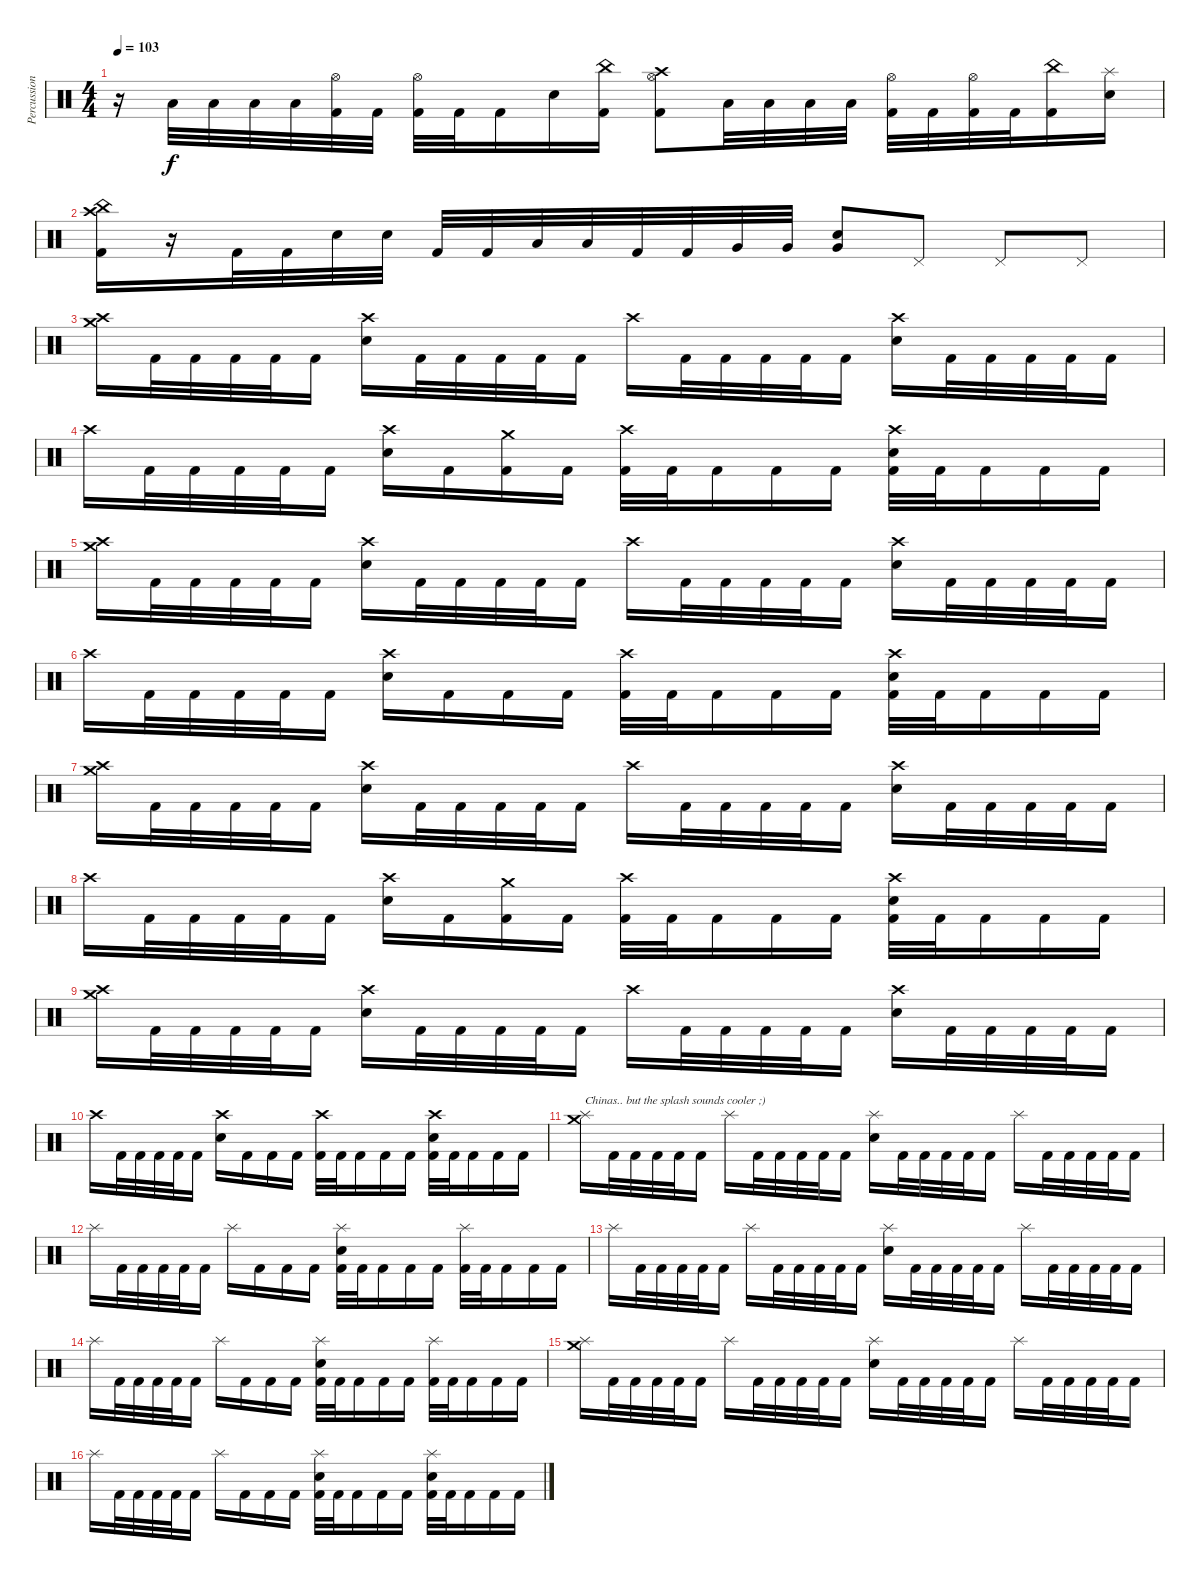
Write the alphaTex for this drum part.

\track ("Percussion" "Percussion") {instrument percussion}
\staff {score}
\articulation defaults
\ts (4 4)
\tempo 103
\clef neutral
\ks c
r.16{dy f} "Low Tom (hit)".32 "Low Tom (hit)".32 "Low Tom (hit)".32 "Low Tom (hit)".32 ("Hi-Hat (open)" "Kick (hit) 2").32 "Kick (hit) 2".32 ("Hi-Hat (open)" "Kick (hit) 2").32 "Kick (hit) 2".32 "Kick (hit) 2".16 "Snare (hit) 2".16 ("China (hit)" "Kick (hit) 2").16 ("Crash high (hit)" "Hi-Hat (open)" "Kick (hit) 2").8 "Low Tom (hit)".32 "Low Tom (hit)".32 "Low Tom (hit)".32 "Low Tom (hit)".32 ("Hi-Hat (open)" "Kick (hit) 2").32 "Kick (hit) 2".32 ("Hi-Hat (open)" "Kick (hit) 2").32 "Kick (hit) 2".32 ("China (hit)" "Kick (hit) 2").16 ("Splash (hit)" "Snare (hit) 2").16 |
("China (hit)" "Crash high (hit)" "Kick (hit) 2").16 r.16 "Kick (hit) 2".32 "Kick (hit) 2".32 "Snare (hit) 2".32 "Snare (hit) 2".32 "Kick (hit) 2".32 "Kick (hit) 2".32 "Low Tom (hit)".32 "Low Tom (hit)".32 "Kick (hit) 2".32 "Kick (hit) 2".32 "Very Low Tom (hit)".32 "Very Low Tom (hit)".32 ("Snare (hit) 2" "Very Low Tom (hit)").8 "Pedal Hi-Hat (hit)".8 "Pedal Hi-Hat (hit)".8 "Pedal Hi-Hat (hit)".8 |
("Crash high (hit)" "Crash medium (hit)").16 "Kick (hit) 2".32 "Kick (hit) 2".32 "Kick (hit) 2".32 "Kick (hit) 2".32 "Kick (hit) 2".16 ("Crash high (hit)" "Snare (hit) 2").16 "Kick (hit) 2".32 "Kick (hit) 2".32 "Kick (hit) 2".32 "Kick (hit) 2".32 "Kick (hit) 2".16 "Crash high (hit)".16 "Kick (hit) 2".32 "Kick (hit) 2".32 "Kick (hit) 2".32 "Kick (hit) 2".32 "Kick (hit) 2".16 ("Crash high (hit)" "Snare (hit) 2").16 "Kick (hit) 2".32 "Kick (hit) 2".32 "Kick (hit) 2".32 "Kick (hit) 2".32 "Kick (hit) 2".16 |
"Crash high (hit)".16 "Kick (hit) 2".32 "Kick (hit) 2".32 "Kick (hit) 2".32 "Kick (hit) 2".32 "Kick (hit) 2".16 ("Crash high (hit)" "Snare (hit) 2").16 "Kick (hit) 2".16 ("Crash medium (hit)" "Kick (hit) 2").16 "Kick (hit) 2".16 ("Crash high (hit)" "Kick (hit) 2").32 "Kick (hit) 2".32 "Kick (hit) 2".16 "Kick (hit) 2".16 "Kick (hit) 2".16 ("Crash high (hit)" "Snare (hit) 2" "Kick (hit) 2").32 "Kick (hit) 2".32 "Kick (hit) 2".16 "Kick (hit) 2".16 "Kick (hit) 2".16 |
("Crash high (hit)" "Crash medium (hit)").16 "Kick (hit) 2".32 "Kick (hit) 2".32 "Kick (hit) 2".32 "Kick (hit) 2".32 "Kick (hit) 2".16 ("Crash high (hit)" "Snare (hit) 2").16 "Kick (hit) 2".32 "Kick (hit) 2".32 "Kick (hit) 2".32 "Kick (hit) 2".32 "Kick (hit) 2".16 "Crash high (hit)".16 "Kick (hit) 2".32 "Kick (hit) 2".32 "Kick (hit) 2".32 "Kick (hit) 2".32 "Kick (hit) 2".16 ("Crash high (hit)" "Snare (hit) 2").16 "Kick (hit) 2".32 "Kick (hit) 2".32 "Kick (hit) 2".32 "Kick (hit) 2".32 "Kick (hit) 2".16 |
"Crash high (hit)".16 "Kick (hit) 2".32 "Kick (hit) 2".32 "Kick (hit) 2".32 "Kick (hit) 2".32 "Kick (hit) 2".16 ("Crash high (hit)" "Snare (hit) 2").16 "Kick (hit) 2".16 "Kick (hit) 2".16 "Kick (hit) 2".16 ("Crash high (hit)" "Kick (hit) 2").32 "Kick (hit) 2".32 "Kick (hit) 2".16 "Kick (hit) 2".16 "Kick (hit) 2".16 ("Crash high (hit)" "Snare (hit) 2" "Kick (hit) 2").32 "Kick (hit) 2".32 "Kick (hit) 2".16 "Kick (hit) 2".16 "Kick (hit) 2".16 |
("Crash high (hit)" "Crash medium (hit)").16 "Kick (hit) 2".32 "Kick (hit) 2".32 "Kick (hit) 2".32 "Kick (hit) 2".32 "Kick (hit) 2".16 ("Crash high (hit)" "Snare (hit) 2").16 "Kick (hit) 2".32 "Kick (hit) 2".32 "Kick (hit) 2".32 "Kick (hit) 2".32 "Kick (hit) 2".16 "Crash high (hit)".16 "Kick (hit) 2".32 "Kick (hit) 2".32 "Kick (hit) 2".32 "Kick (hit) 2".32 "Kick (hit) 2".16 ("Crash high (hit)" "Snare (hit) 2").16 "Kick (hit) 2".32 "Kick (hit) 2".32 "Kick (hit) 2".32 "Kick (hit) 2".32 "Kick (hit) 2".16 |
"Crash high (hit)".16 "Kick (hit) 2".32 "Kick (hit) 2".32 "Kick (hit) 2".32 "Kick (hit) 2".32 "Kick (hit) 2".16 ("Crash high (hit)" "Snare (hit) 2").16 "Kick (hit) 2".16 ("Crash medium (hit)" "Kick (hit) 2").16 "Kick (hit) 2".16 ("Crash high (hit)" "Kick (hit) 2").32 "Kick (hit) 2".32 "Kick (hit) 2".16 "Kick (hit) 2".16 "Kick (hit) 2".16 ("Crash high (hit)" "Snare (hit) 2" "Kick (hit) 2").32 "Kick (hit) 2".32 "Kick (hit) 2".16 "Kick (hit) 2".16 "Kick (hit) 2".16 |
("Crash high (hit)" "Crash medium (hit)").16 "Kick (hit) 2".32 "Kick (hit) 2".32 "Kick (hit) 2".32 "Kick (hit) 2".32 "Kick (hit) 2".16 ("Crash high (hit)" "Snare (hit) 2").16 "Kick (hit) 2".32 "Kick (hit) 2".32 "Kick (hit) 2".32 "Kick (hit) 2".32 "Kick (hit) 2".16 "Crash high (hit)".16 "Kick (hit) 2".32 "Kick (hit) 2".32 "Kick (hit) 2".32 "Kick (hit) 2".32 "Kick (hit) 2".16 ("Crash high (hit)" "Snare (hit) 2").16 "Kick (hit) 2".32 "Kick (hit) 2".32 "Kick (hit) 2".32 "Kick (hit) 2".32 "Kick (hit) 2".16 |
"Crash high (hit)".16 "Kick (hit) 2".32 "Kick (hit) 2".32 "Kick (hit) 2".32 "Kick (hit) 2".32 "Kick (hit) 2".16 ("Crash high (hit)" "Snare (hit) 2").16 "Kick (hit) 2".16 "Kick (hit) 2".16 "Kick (hit) 2".16 ("Crash high (hit)" "Kick (hit) 2").32 "Kick (hit) 2".32 "Kick (hit) 2".16 "Kick (hit) 2".16 "Kick (hit) 2".16 ("Crash high (hit)" "Snare (hit) 2" "Kick (hit) 2").32 "Kick (hit) 2".32 "Kick (hit) 2".16 "Kick (hit) 2".16 "Kick (hit) 2".16 |
("Splash (hit)" "Crash medium (hit)").16{txt "Chinas.. but the splash sounds cooler ;)"} "Kick (hit) 2".32 "Kick (hit) 2".32 "Kick (hit) 2".32 "Kick (hit) 2".32 "Kick (hit) 2".16 "Splash (hit)".16 "Kick (hit) 2".32 "Kick (hit) 2".32 "Kick (hit) 2".32 "Kick (hit) 2".32 "Kick (hit) 2".16 ("Splash (hit)" "Snare (hit) 2").16 "Kick (hit) 2".32 "Kick (hit) 2".32 "Kick (hit) 2".32 "Kick (hit) 2".32 "Kick (hit) 2".16 "Splash (hit)".16 "Kick (hit) 2".32 "Kick (hit) 2".32 "Kick (hit) 2".32 "Kick (hit) 2".32 "Kick (hit) 2".16 |
"Splash (hit)".16 "Kick (hit) 2".32 "Kick (hit) 2".32 "Kick (hit) 2".32 "Kick (hit) 2".32 "Kick (hit) 2".16 "Splash (hit)".16 "Kick (hit) 2".16 "Kick (hit) 2".16 "Kick (hit) 2".16 ("Splash (hit)" "Snare (hit) 2" "Kick (hit) 2").32 "Kick (hit) 2".32 "Kick (hit) 2".16 "Kick (hit) 2".16 "Kick (hit) 2".16 ("Splash (hit)" "Kick (hit) 2").32 "Kick (hit) 2".32 "Kick (hit) 2".16 "Kick (hit) 2".16 "Kick (hit) 2".16 |
"Splash (hit)".16 "Kick (hit) 2".32 "Kick (hit) 2".32 "Kick (hit) 2".32 "Kick (hit) 2".32 "Kick (hit) 2".16 "Splash (hit)".16 "Kick (hit) 2".32 "Kick (hit) 2".32 "Kick (hit) 2".32 "Kick (hit) 2".32 "Kick (hit) 2".16 ("Splash (hit)" "Snare (hit) 2").16 "Kick (hit) 2".32 "Kick (hit) 2".32 "Kick (hit) 2".32 "Kick (hit) 2".32 "Kick (hit) 2".16 "Splash (hit)".16 "Kick (hit) 2".32 "Kick (hit) 2".32 "Kick (hit) 2".32 "Kick (hit) 2".32 "Kick (hit) 2".16 |
"Splash (hit)".16 "Kick (hit) 2".32 "Kick (hit) 2".32 "Kick (hit) 2".32 "Kick (hit) 2".32 "Kick (hit) 2".16 "Splash (hit)".16 "Kick (hit) 2".16 "Kick (hit) 2".16 "Kick (hit) 2".16 ("Splash (hit)" "Snare (hit) 2" "Kick (hit) 2").32 "Kick (hit) 2".32 "Kick (hit) 2".16 "Kick (hit) 2".16 "Kick (hit) 2".16 ("Splash (hit)" "Kick (hit) 2").32 "Kick (hit) 2".32 "Kick (hit) 2".16 "Kick (hit) 2".16 "Kick (hit) 2".16 |
("Splash (hit)" "Crash medium (hit)").16 "Kick (hit) 2".32 "Kick (hit) 2".32 "Kick (hit) 2".32 "Kick (hit) 2".32 "Kick (hit) 2".16 "Splash (hit)".16 "Kick (hit) 2".32 "Kick (hit) 2".32 "Kick (hit) 2".32 "Kick (hit) 2".32 "Kick (hit) 2".16 ("Splash (hit)" "Snare (hit) 2").16 "Kick (hit) 2".32 "Kick (hit) 2".32 "Kick (hit) 2".32 "Kick (hit) 2".32 "Kick (hit) 2".16 "Splash (hit)".16 "Kick (hit) 2".32 "Kick (hit) 2".32 "Kick (hit) 2".32 "Kick (hit) 2".32 "Kick (hit) 2".16 |
"Splash (hit)".16 "Kick (hit) 2".32 "Kick (hit) 2".32 "Kick (hit) 2".32 "Kick (hit) 2".32 "Kick (hit) 2".16 "Splash (hit)".16 "Kick (hit) 2".16 "Kick (hit) 2".16 "Kick (hit) 2".16 ("Splash (hit)" "Snare (hit) 2" "Kick (hit) 2").32 "Kick (hit) 2".32 "Kick (hit) 2".16 "Kick (hit) 2".16 "Kick (hit) 2".16 ("Splash (hit)" "Snare (hit) 2" "Kick (hit) 2").32 "Kick (hit) 2".32 "Kick (hit) 2".16 "Kick (hit) 2".16 "Kick (hit) 2".16
